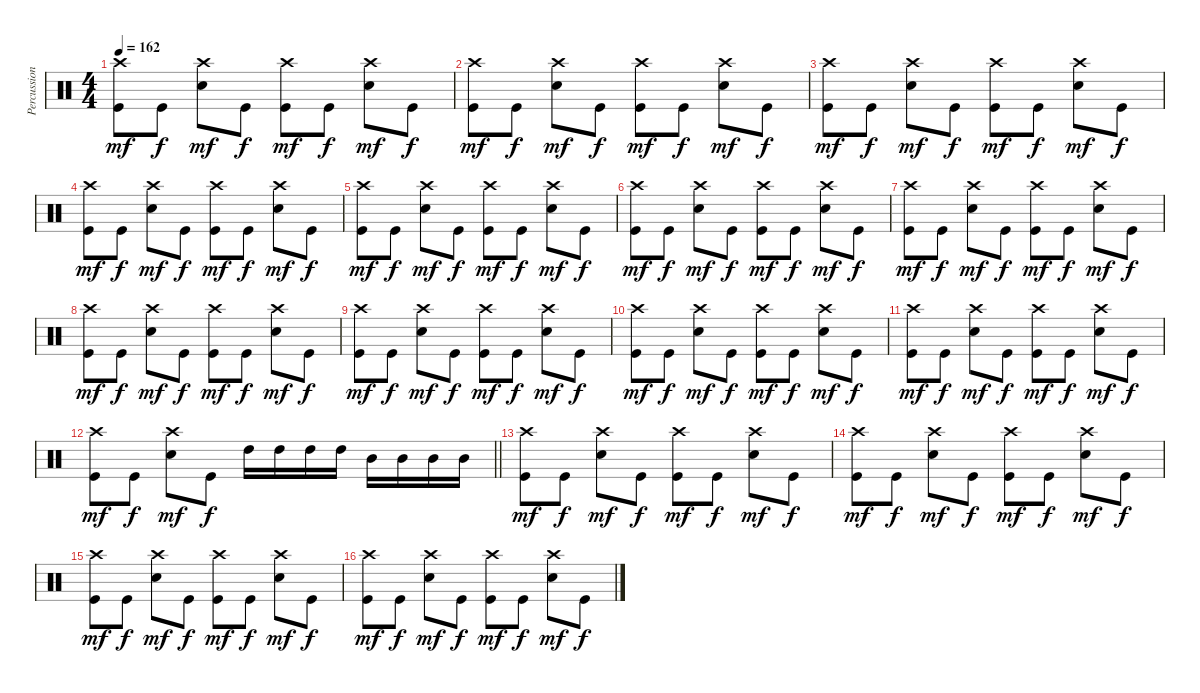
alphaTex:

\track ("Percussions" "Percussion") {instrument percussion}
\staff {score}
\articulation defaults
\ts (4 4)
\tempo 162
\clef neutral
\ks c
("Crash high (hit)" "Kick (hit)").8{dy mf} "Kick (hit)".8{dy f} ("Crash high (hit)" "Electric Snare (hit)").8{dy mf} "Kick (hit)".8{dy f} ("Crash high (hit)" "Kick (hit)").8{dy mf} "Kick (hit)".8{dy f} ("Crash high (hit)" "Electric Snare (hit)").8{dy mf} "Kick (hit)".8{dy f} |
("Crash high (hit)" "Kick (hit)").8{dy mf} "Kick (hit)".8{dy f} ("Crash high (hit)" "Electric Snare (hit)").8{dy mf} "Kick (hit)".8{dy f} ("Crash high (hit)" "Kick (hit)").8{dy mf} "Kick (hit)".8{dy f} ("Crash high (hit)" "Electric Snare (hit)").8{dy mf} "Kick (hit)".8{dy f} |
("Crash high (hit)" "Kick (hit)").8{dy mf} "Kick (hit)".8{dy f} ("Crash high (hit)" "Electric Snare (hit)").8{dy mf} "Kick (hit)".8{dy f} ("Crash high (hit)" "Kick (hit)").8{dy mf} "Kick (hit)".8{dy f} ("Crash high (hit)" "Electric Snare (hit)").8{dy mf} "Kick (hit)".8{dy f} |
("Crash high (hit)" "Kick (hit)").8{dy mf} "Kick (hit)".8{dy f} ("Crash high (hit)" "Electric Snare (hit)").8{dy mf} "Kick (hit)".8{dy f} ("Crash high (hit)" "Kick (hit)").8{dy mf} "Kick (hit)".8{dy f} ("Crash high (hit)" "Electric Snare (hit)").8{dy mf} "Kick (hit)".8{dy f} |
("Crash high (hit)" "Kick (hit)").8{dy mf} "Kick (hit)".8{dy f} ("Crash high (hit)" "Electric Snare (hit)").8{dy mf} "Kick (hit)".8{dy f} ("Crash high (hit)" "Kick (hit)").8{dy mf} "Kick (hit)".8{dy f} ("Crash high (hit)" "Electric Snare (hit)").8{dy mf} "Kick (hit)".8{dy f} |
("Crash high (hit)" "Kick (hit)").8{dy mf} "Kick (hit)".8{dy f} ("Crash high (hit)" "Electric Snare (hit)").8{dy mf} "Kick (hit)".8{dy f} ("Crash high (hit)" "Kick (hit)").8{dy mf} "Kick (hit)".8{dy f} ("Crash high (hit)" "Electric Snare (hit)").8{dy mf} "Kick (hit)".8{dy f} |
("Crash high (hit)" "Kick (hit)").8{dy mf} "Kick (hit)".8{dy f} ("Crash high (hit)" "Electric Snare (hit)").8{dy mf} "Kick (hit)".8{dy f} ("Crash high (hit)" "Kick (hit)").8{dy mf} "Kick (hit)".8{dy f} ("Crash high (hit)" "Electric Snare (hit)").8{dy mf} "Kick (hit)".8{dy f} |
("Crash high (hit)" "Kick (hit)").8{dy mf} "Kick (hit)".8{dy f} ("Crash high (hit)" "Electric Snare (hit)").8{dy mf} "Kick (hit)".8{dy f} ("Crash high (hit)" "Kick (hit)").8{dy mf} "Kick (hit)".8{dy f} ("Crash high (hit)" "Electric Snare (hit)").8{dy mf} "Kick (hit)".8{dy f} |
("Crash high (hit)" "Kick (hit)").8{dy mf} "Kick (hit)".8{dy f} ("Crash high (hit)" "Electric Snare (hit)").8{dy mf} "Kick (hit)".8{dy f} ("Crash high (hit)" "Kick (hit)").8{dy mf} "Kick (hit)".8{dy f} ("Crash high (hit)" "Electric Snare (hit)").8{dy mf} "Kick (hit)".8{dy f} |
("Crash high (hit)" "Kick (hit)").8{dy mf} "Kick (hit)".8{dy f} ("Crash high (hit)" "Electric Snare (hit)").8{dy mf} "Kick (hit)".8{dy f} ("Crash high (hit)" "Kick (hit)").8{dy mf} "Kick (hit)".8{dy f} ("Crash high (hit)" "Electric Snare (hit)").8{dy mf} "Kick (hit)".8{dy f} |
("Crash high (hit)" "Kick (hit)").8{dy mf} "Kick (hit)".8{dy f} ("Crash high (hit)" "Electric Snare (hit)").8{dy mf} "Kick (hit)".8{dy f} ("Crash high (hit)" "Kick (hit)").8{dy mf} "Kick (hit)".8{dy f} ("Crash high (hit)" "Electric Snare (hit)").8{dy mf} "Kick (hit)".8{dy f} |
\barLineRight lightlight
("Crash high (hit)" "Kick (hit)").8{dy mf} "Kick (hit)".8{dy f} ("Crash high (hit)" "Electric Snare (hit)").8{dy mf} "Kick (hit)".8{dy f} "High Tom (hit)".16 "High Tom (hit)".16 "High Tom (hit)".16 "High Tom (hit)".16 "Mid Tom (hit)".16 "Mid Tom (hit)".16 "Mid Tom (hit)".16 "Mid Tom (hit)".16 |
("Crash high (hit)" "Kick (hit)").8{dy mf} "Kick (hit)".8{dy f} ("Crash high (hit)" "Electric Snare (hit)").8{dy mf} "Kick (hit)".8{dy f} ("Crash high (hit)" "Kick (hit)").8{dy mf} "Kick (hit)".8{dy f} ("Crash high (hit)" "Electric Snare (hit)").8{dy mf} "Kick (hit)".8{dy f} |
("Crash high (hit)" "Kick (hit)").8{dy mf} "Kick (hit)".8{dy f} ("Crash high (hit)" "Electric Snare (hit)").8{dy mf} "Kick (hit)".8{dy f} ("Crash high (hit)" "Kick (hit)").8{dy mf} "Kick (hit)".8{dy f} ("Crash high (hit)" "Electric Snare (hit)").8{dy mf} "Kick (hit)".8{dy f} |
("Crash high (hit)" "Kick (hit)").8{dy mf} "Kick (hit)".8{dy f} ("Crash high (hit)" "Electric Snare (hit)").8{dy mf} "Kick (hit)".8{dy f} ("Crash high (hit)" "Kick (hit)").8{dy mf} "Kick (hit)".8{dy f} ("Crash high (hit)" "Electric Snare (hit)").8{dy mf} "Kick (hit)".8{dy f} |
("Crash high (hit)" "Kick (hit)").8{dy mf} "Kick (hit)".8{dy f} ("Crash high (hit)" "Electric Snare (hit)").8{dy mf} "Kick (hit)".8{dy f} ("Crash high (hit)" "Kick (hit)").8{dy mf} "Kick (hit)".8{dy f} ("Crash high (hit)" "Electric Snare (hit)").8{dy mf} "Kick (hit)".8{dy f}
